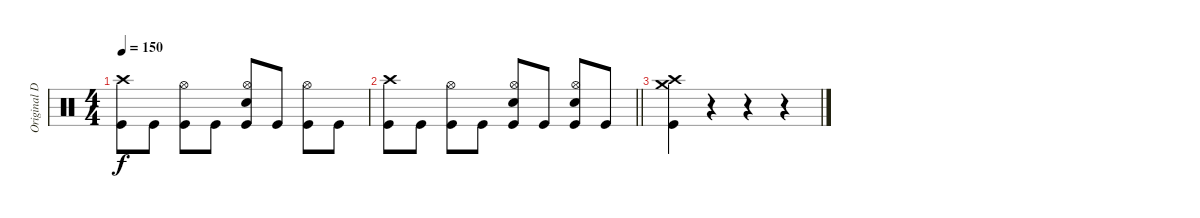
\track ("Original Drums" "Original D") {instrument percussion}
\staff {score}
\articulation defaults
\ts (4 4)
\tempo 150
\clef neutral
\ks c
("Crash high (hit)" "Kick (hit)").8{dy f} "Kick (hit)".8 ("Hi-Hat (open)" "Kick (hit)").8 "Kick (hit)".8 ("Hi-Hat (open)" "Snare (hit) 2" "Kick (hit)").8 "Kick (hit)".8 ("Hi-Hat (open)" "Kick (hit)").8 "Kick (hit)".8 |
\barLineRight lightlight
("Crash high (hit)" "Kick (hit)").8 "Kick (hit)".8 ("Hi-Hat (open)" "Kick (hit)").8 "Kick (hit)".8 ("Hi-Hat (open)" "Snare (hit) 2" "Kick (hit)").8 "Kick (hit)".8 ("Hi-Hat (open)" "Snare (hit) 2" "Kick (hit)").8 "Kick (hit)".8 |
("Crash high (hit)" "Crash medium (hit)" "Kick (hit)").4 r.4 r.4 r.4
